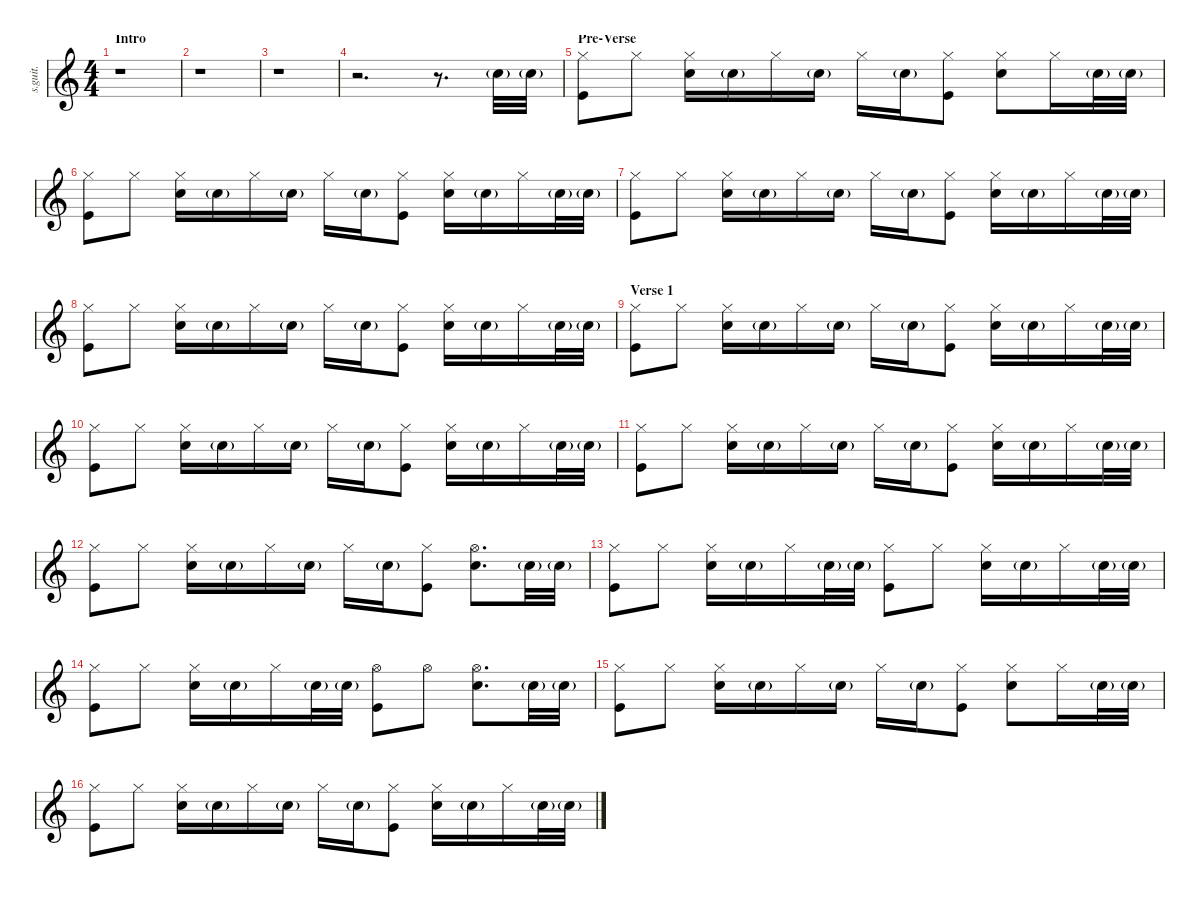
\defaultSystemsLayout 4
\hideDynamics
\bracketExtendMode nobrackets
\track ("C. Smith" "s.guit.") {instrument percussion}
\staff {score}
\articulation defaults
\ts (4 4)
\beaming (8 2 2 2 2)
\section ("" "Intro")
\tempo (96 hide)
\clef g2
\ks c
r.1{dy ppp} |
r.1 |
r.1 |
r.2{d} r.8{d} "Snare (hit) 2"{g}.32{lyrics (0 "") lyrics (1 "") lyrics (2 "") lyrics (3 "") lyrics (4 "")} "Snare (hit) 2"{g}.32{lyrics (0 "") lyrics (1 "") lyrics (2 "") lyrics (3 "") lyrics (4 "")} |
\section ("" "Pre-Verse")
("Hi-Hat (closed)" "Kick (hit)").8{lyrics (0 "") lyrics (1 "") lyrics (2 "") lyrics (3 "") lyrics (4 "") dy f} "Hi-Hat (closed)".8{lyrics (0 "") lyrics (1 "") lyrics (2 "") lyrics (3 "") lyrics (4 "") dy mp} ("Hi-Hat (closed)" "Snare (hit) 2").16{lyrics (0 "") lyrics (1 "") lyrics (2 "") lyrics (3 "") lyrics (4 "")} "Snare (hit) 2"{g}.16{lyrics (0 "") lyrics (1 "") lyrics (2 "") lyrics (3 "") lyrics (4 "") dy ppp} "Hi-Hat (closed)".16{lyrics (0 "") lyrics (1 "") lyrics (2 "") lyrics (3 "") lyrics (4 "") dy mp} "Snare (hit) 2"{g}.16{lyrics (0 "") lyrics (1 "") lyrics (2 "") lyrics (3 "") lyrics (4 "") dy ppp} "Hi-Hat (closed)".16{lyrics (0 "") lyrics (1 "") lyrics (2 "") lyrics (3 "") lyrics (4 "") dy fff} "Snare (hit) 2"{g}.16{lyrics (0 "") lyrics (1 "") lyrics (2 "") lyrics (3 "") lyrics (4 "") dy ppp} ("Hi-Hat (closed)" "Kick (hit)").8{lyrics (0 "") lyrics (1 "") lyrics (2 "") lyrics (3 "") lyrics (4 "") dy f} ("Hi-Hat (closed)" "Snare (hit) 2").8{lyrics (0 "") lyrics (1 "") lyrics (2 "") lyrics (3 "") lyrics (4 "")} "Hi-Hat (closed)".16{lyrics (0 "") lyrics (1 "") lyrics (2 "") lyrics (3 "") lyrics (4 "") dy mp} "Snare (hit) 2"{g}.32{lyrics (0 "") lyrics (1 "") lyrics (2 "") lyrics (3 "") lyrics (4 "") dy ppp} "Snare (hit) 2"{g}.32{lyrics (0 "") lyrics (1 "") lyrics (2 "") lyrics (3 "") lyrics (4 "")} |
("Hi-Hat (closed)" "Kick (hit)").8{lyrics (0 "") lyrics (1 "") lyrics (2 "") lyrics (3 "") lyrics (4 "") dy f} "Hi-Hat (closed)".8{lyrics (0 "") lyrics (1 "") lyrics (2 "") lyrics (3 "") lyrics (4 "") dy mp} ("Hi-Hat (closed)" "Snare (hit) 2").16{lyrics (0 "") lyrics (1 "") lyrics (2 "") lyrics (3 "") lyrics (4 "")} "Snare (hit) 2"{g}.16{lyrics (0 "") lyrics (1 "") lyrics (2 "") lyrics (3 "") lyrics (4 "") dy ppp} "Hi-Hat (closed)".16{lyrics (0 "") lyrics (1 "") lyrics (2 "") lyrics (3 "") lyrics (4 "") dy mp} "Snare (hit) 2"{g}.16{lyrics (0 "") lyrics (1 "") lyrics (2 "") lyrics (3 "") lyrics (4 "") dy ppp} "Hi-Hat (closed)".16{lyrics (0 "") lyrics (1 "") lyrics (2 "") lyrics (3 "") lyrics (4 "") dy fff} "Snare (hit) 2"{g}.16{lyrics (0 "") lyrics (1 "") lyrics (2 "") lyrics (3 "") lyrics (4 "") dy ppp} ("Hi-Hat (closed)" "Kick (hit)").8{lyrics (0 "") lyrics (1 "") lyrics (2 "") lyrics (3 "") lyrics (4 "") dy f} ("Hi-Hat (closed)" "Snare (hit) 2").16{lyrics (0 "") lyrics (1 "") lyrics (2 "") lyrics (3 "") lyrics (4 "")} "Snare (hit) 2"{g}.16{lyrics (0 "") lyrics (1 "") lyrics (2 "") lyrics (3 "") lyrics (4 "") dy ppp} "Hi-Hat (closed)".16{lyrics (0 "") lyrics (1 "") lyrics (2 "") lyrics (3 "") lyrics (4 "") dy mp} "Snare (hit) 2"{g}.32{lyrics (0 "") lyrics (1 "") lyrics (2 "") lyrics (3 "") lyrics (4 "") dy ppp} "Snare (hit) 2"{g}.32{lyrics (0 "") lyrics (1 "") lyrics (2 "") lyrics (3 "") lyrics (4 "")} |
("Hi-Hat (closed)" "Kick (hit)").8{lyrics (0 "") lyrics (1 "") lyrics (2 "") lyrics (3 "") lyrics (4 "") dy f} "Hi-Hat (closed)".8{lyrics (0 "") lyrics (1 "") lyrics (2 "") lyrics (3 "") lyrics (4 "") dy mp} ("Hi-Hat (closed)" "Snare (hit) 2").16{lyrics (0 "") lyrics (1 "") lyrics (2 "") lyrics (3 "") lyrics (4 "") dy f} "Snare (hit) 2"{g}.16{lyrics (0 "") lyrics (1 "") lyrics (2 "") lyrics (3 "") lyrics (4 "") dy ppp} "Hi-Hat (closed)".16{lyrics (0 "") lyrics (1 "") lyrics (2 "") lyrics (3 "") lyrics (4 "") dy mp} "Snare (hit) 2"{g}.16{lyrics (0 "") lyrics (1 "") lyrics (2 "") lyrics (3 "") lyrics (4 "") dy ppp} "Hi-Hat (closed)".16{lyrics (0 "") lyrics (1 "") lyrics (2 "") lyrics (3 "") lyrics (4 "") dy fff} "Snare (hit) 2"{g}.16{lyrics (0 "") lyrics (1 "") lyrics (2 "") lyrics (3 "") lyrics (4 "") dy ppp} ("Hi-Hat (closed)" "Kick (hit)").8{lyrics (0 "") lyrics (1 "") lyrics (2 "") lyrics (3 "") lyrics (4 "") dy f} ("Hi-Hat (closed)" "Snare (hit) 2").16{lyrics (0 "") lyrics (1 "") lyrics (2 "") lyrics (3 "") lyrics (4 "")} "Snare (hit) 2"{g}.16{lyrics (0 "") lyrics (1 "") lyrics (2 "") lyrics (3 "") lyrics (4 "") dy ppp} "Hi-Hat (closed)".16{lyrics (0 "") lyrics (1 "") lyrics (2 "") lyrics (3 "") lyrics (4 "") dy mp} "Snare (hit) 2"{g}.32{lyrics (0 "") lyrics (1 "") lyrics (2 "") lyrics (3 "") lyrics (4 "") dy ppp} "Snare (hit) 2"{g}.32{lyrics (0 "") lyrics (1 "") lyrics (2 "") lyrics (3 "") lyrics (4 "")} |
("Hi-Hat (closed)" "Kick (hit)").8{lyrics (0 "") lyrics (1 "") lyrics (2 "") lyrics (3 "") lyrics (4 "") dy f} "Hi-Hat (closed)".8{lyrics (0 "") lyrics (1 "") lyrics (2 "") lyrics (3 "") lyrics (4 "") dy mp} ("Hi-Hat (closed)" "Snare (hit) 2").16{lyrics (0 "") lyrics (1 "") lyrics (2 "") lyrics (3 "") lyrics (4 "") dy f} "Snare (hit) 2"{g}.16{lyrics (0 "") lyrics (1 "") lyrics (2 "") lyrics (3 "") lyrics (4 "") dy ppp} "Hi-Hat (closed)".16{lyrics (0 "") lyrics (1 "") lyrics (2 "") lyrics (3 "") lyrics (4 "") dy fff} "Snare (hit) 2"{g}.16{lyrics (0 "") lyrics (1 "") lyrics (2 "") lyrics (3 "") lyrics (4 "") dy ppp} "Hi-Hat (closed)".16{lyrics (0 "") lyrics (1 "") lyrics (2 "") lyrics (3 "") lyrics (4 "") dy fff} "Snare (hit) 2"{g}.16{lyrics (0 "") lyrics (1 "") lyrics (2 "") lyrics (3 "") lyrics (4 "") dy ppp} ("Hi-Hat (closed)" "Kick (hit)").8{lyrics (0 "") lyrics (1 "") lyrics (2 "") lyrics (3 "") lyrics (4 "") dy f} ("Hi-Hat (closed)" "Snare (hit) 2").16{lyrics (0 "") lyrics (1 "") lyrics (2 "") lyrics (3 "") lyrics (4 "")} "Snare (hit) 2"{g}.16{lyrics (0 "") lyrics (1 "") lyrics (2 "") lyrics (3 "") lyrics (4 "") dy ppp} "Hi-Hat (closed)".16{lyrics (0 "") lyrics (1 "") lyrics (2 "") lyrics (3 "") lyrics (4 "") dy mp} "Snare (hit) 2"{g}.32{lyrics (0 "") lyrics (1 "") lyrics (2 "") lyrics (3 "") lyrics (4 "") dy ppp} "Snare (hit) 2"{g}.32{lyrics (0 "") lyrics (1 "") lyrics (2 "") lyrics (3 "") lyrics (4 "")} |
\section ("" "Verse 1")
("Hi-Hat (closed)" "Kick (hit)").8{lyrics (0 "") lyrics (1 "") lyrics (2 "") lyrics (3 "") lyrics (4 "") dy f} "Hi-Hat (closed)".8{lyrics (0 "") lyrics (1 "") lyrics (2 "") lyrics (3 "") lyrics (4 "") dy mp} ("Hi-Hat (closed)" "Snare (hit) 2").16{lyrics (0 "") lyrics (1 "") lyrics (2 "") lyrics (3 "") lyrics (4 "") dy f} "Snare (hit) 2"{g}.16{lyrics (0 "") lyrics (1 "") lyrics (2 "") lyrics (3 "") lyrics (4 "") dy ppp} "Hi-Hat (closed)".16{lyrics (0 "") lyrics (1 "") lyrics (2 "") lyrics (3 "") lyrics (4 "") dy mp} "Snare (hit) 2"{g}.16{lyrics (0 "") lyrics (1 "") lyrics (2 "") lyrics (3 "") lyrics (4 "") dy ppp} "Hi-Hat (closed)".16{lyrics (0 "") lyrics (1 "") lyrics (2 "") lyrics (3 "") lyrics (4 "") dy fff} "Snare (hit) 2"{g}.16{lyrics (0 "") lyrics (1 "") lyrics (2 "") lyrics (3 "") lyrics (4 "") dy ppp} ("Hi-Hat (closed)" "Kick (hit)").8{lyrics (0 "") lyrics (1 "") lyrics (2 "") lyrics (3 "") lyrics (4 "") dy f} ("Hi-Hat (closed)" "Snare (hit) 2").16{lyrics (0 "") lyrics (1 "") lyrics (2 "") lyrics (3 "") lyrics (4 "")} "Snare (hit) 2"{g}.16{lyrics (0 "") lyrics (1 "") lyrics (2 "") lyrics (3 "") lyrics (4 "") dy ppp} "Hi-Hat (closed)".16{lyrics (0 "") lyrics (1 "") lyrics (2 "") lyrics (3 "") lyrics (4 "") dy mp} "Snare (hit) 2"{g}.32{lyrics (0 "") lyrics (1 "") lyrics (2 "") lyrics (3 "") lyrics (4 "") dy ppp} "Snare (hit) 2"{g}.32{lyrics (0 "") lyrics (1 "") lyrics (2 "") lyrics (3 "") lyrics (4 "")} |
("Hi-Hat (closed)" "Kick (hit)").8{lyrics (0 "") lyrics (1 "") lyrics (2 "") lyrics (3 "") lyrics (4 "") dy f} "Hi-Hat (closed)".8{lyrics (0 "") lyrics (1 "") lyrics (2 "") lyrics (3 "") lyrics (4 "") dy mp} ("Hi-Hat (closed)" "Snare (hit) 2").16{lyrics (0 "") lyrics (1 "") lyrics (2 "") lyrics (3 "") lyrics (4 "") dy f} "Snare (hit) 2"{g}.16{lyrics (0 "") lyrics (1 "") lyrics (2 "") lyrics (3 "") lyrics (4 "") dy ppp} "Hi-Hat (closed)".16{lyrics (0 "") lyrics (1 "") lyrics (2 "") lyrics (3 "") lyrics (4 "") dy mp} "Snare (hit) 2"{g}.16{lyrics (0 "") lyrics (1 "") lyrics (2 "") lyrics (3 "") lyrics (4 "") dy ppp} "Hi-Hat (closed)".16{lyrics (0 "") lyrics (1 "") lyrics (2 "") lyrics (3 "") lyrics (4 "") dy fff} "Snare (hit) 2"{g}.16{lyrics (0 "") lyrics (1 "") lyrics (2 "") lyrics (3 "") lyrics (4 "") dy ppp} ("Hi-Hat (closed)" "Kick (hit)").8{lyrics (0 "") lyrics (1 "") lyrics (2 "") lyrics (3 "") lyrics (4 "") dy f} ("Hi-Hat (closed)" "Snare (hit) 2").16{lyrics (0 "") lyrics (1 "") lyrics (2 "") lyrics (3 "") lyrics (4 "")} "Snare (hit) 2"{g}.16{lyrics (0 "") lyrics (1 "") lyrics (2 "") lyrics (3 "") lyrics (4 "") dy ppp} "Hi-Hat (closed)".16{lyrics (0 "") lyrics (1 "") lyrics (2 "") lyrics (3 "") lyrics (4 "") dy mp} "Snare (hit) 2"{g}.32{lyrics (0 "") lyrics (1 "") lyrics (2 "") lyrics (3 "") lyrics (4 "") dy ppp} "Snare (hit) 2"{g}.32{lyrics (0 "") lyrics (1 "") lyrics (2 "") lyrics (3 "") lyrics (4 "")} |
("Hi-Hat (closed)" "Kick (hit)").8{lyrics (0 "") lyrics (1 "") lyrics (2 "") lyrics (3 "") lyrics (4 "") dy f} "Hi-Hat (closed)".8{lyrics (0 "") lyrics (1 "") lyrics (2 "") lyrics (3 "") lyrics (4 "") dy mp} ("Hi-Hat (closed)" "Snare (hit) 2").16{lyrics (0 "") lyrics (1 "") lyrics (2 "") lyrics (3 "") lyrics (4 "") dy f} "Snare (hit) 2"{g}.16{lyrics (0 "") lyrics (1 "") lyrics (2 "") lyrics (3 "") lyrics (4 "") dy ppp} "Hi-Hat (closed)".16{lyrics (0 "") lyrics (1 "") lyrics (2 "") lyrics (3 "") lyrics (4 "") dy mp} "Snare (hit) 2"{g}.16{lyrics (0 "") lyrics (1 "") lyrics (2 "") lyrics (3 "") lyrics (4 "") dy ppp} "Hi-Hat (closed)".16{lyrics (0 "") lyrics (1 "") lyrics (2 "") lyrics (3 "") lyrics (4 "") dy fff} "Snare (hit) 2"{g}.16{lyrics (0 "") lyrics (1 "") lyrics (2 "") lyrics (3 "") lyrics (4 "") dy ppp} ("Hi-Hat (closed)" "Kick (hit)").8{lyrics (0 "") lyrics (1 "") lyrics (2 "") lyrics (3 "") lyrics (4 "") dy f} ("Hi-Hat (closed)" "Snare (hit) 2").16{lyrics (0 "") lyrics (1 "") lyrics (2 "") lyrics (3 "") lyrics (4 "")} "Snare (hit) 2"{g}.16{lyrics (0 "") lyrics (1 "") lyrics (2 "") lyrics (3 "") lyrics (4 "") dy ppp} "Hi-Hat (closed)".16{lyrics (0 "") lyrics (1 "") lyrics (2 "") lyrics (3 "") lyrics (4 "") dy mp} "Snare (hit) 2"{g}.32{lyrics (0 "") lyrics (1 "") lyrics (2 "") lyrics (3 "") lyrics (4 "") dy ppp} "Snare (hit) 2"{g}.32{lyrics (0 "") lyrics (1 "") lyrics (2 "") lyrics (3 "") lyrics (4 "")} |
("Hi-Hat (closed)" "Kick (hit)").8{lyrics (0 "") lyrics (1 "") lyrics (2 "") lyrics (3 "") lyrics (4 "") dy f} "Hi-Hat (closed)".8{lyrics (0 "") lyrics (1 "") lyrics (2 "") lyrics (3 "") lyrics (4 "") dy mp} ("Hi-Hat (closed)" "Snare (hit) 2").16{lyrics (0 "") lyrics (1 "") lyrics (2 "") lyrics (3 "") lyrics (4 "") dy f} "Snare (hit) 2"{g}.16{lyrics (0 "") lyrics (1 "") lyrics (2 "") lyrics (3 "") lyrics (4 "") dy ppp} "Hi-Hat (closed)".16{lyrics (0 "") lyrics (1 "") lyrics (2 "") lyrics (3 "") lyrics (4 "") dy mp} "Snare (hit) 2"{g}.16{lyrics (0 "") lyrics (1 "") lyrics (2 "") lyrics (3 "") lyrics (4 "") dy ppp} "Hi-Hat (closed)".16{lyrics (0 "") lyrics (1 "") lyrics (2 "") lyrics (3 "") lyrics (4 "") dy fff} "Snare (hit) 2"{g}.16{lyrics (0 "") lyrics (1 "") lyrics (2 "") lyrics (3 "") lyrics (4 "") dy ppp} ("Hi-Hat (closed)" "Kick (hit)").8{lyrics (0 "") lyrics (1 "") lyrics (2 "") lyrics (3 "") lyrics (4 "") dy f} ("Hi-Hat (open)" "Snare (hit) 2").8{d lyrics (0 "") lyrics (1 "") lyrics (2 "") lyrics (3 "") lyrics (4 "")} "Snare (hit) 2"{g}.32{lyrics (0 "") lyrics (1 "") lyrics (2 "") lyrics (3 "") lyrics (4 "") dy ppp} "Snare (hit) 2"{g}.32{lyrics (0 "") lyrics (1 "") lyrics (2 "") lyrics (3 "") lyrics (4 "")} |
("Hi-Hat (closed)" "Kick (hit)").8{lyrics (0 "") lyrics (1 "") lyrics (2 "") lyrics (3 "") lyrics (4 "") dy f} "Hi-Hat (closed)".8{lyrics (0 "") lyrics (1 "") lyrics (2 "") lyrics (3 "") lyrics (4 "") dy mp} ("Hi-Hat (closed)" "Snare (hit) 2").16{lyrics (0 "") lyrics (1 "") lyrics (2 "") lyrics (3 "") lyrics (4 "") dy f} "Snare (hit) 2"{g}.16{lyrics (0 "") lyrics (1 "") lyrics (2 "") lyrics (3 "") lyrics (4 "") dy ppp} "Hi-Hat (closed)".16{lyrics (0 "") lyrics (1 "") lyrics (2 "") lyrics (3 "") lyrics (4 "") dy mp} "Snare (hit) 2"{g}.32{lyrics (0 "") lyrics (1 "") lyrics (2 "") lyrics (3 "") lyrics (4 "") dy ppp} "Snare (hit) 2"{g}.32{lyrics (0 "") lyrics (1 "") lyrics (2 "") lyrics (3 "") lyrics (4 "")} ("Hi-Hat (closed)" "Kick (hit)").8{lyrics (0 "") lyrics (1 "") lyrics (2 "") lyrics (3 "") lyrics (4 "") dy f} "Hi-Hat (closed)".8{lyrics (0 "") lyrics (1 "") lyrics (2 "") lyrics (3 "") lyrics (4 "") dy mp} ("Hi-Hat (closed)" "Snare (hit) 2").16{lyrics (0 "") lyrics (1 "") lyrics (2 "") lyrics (3 "") lyrics (4 "") dy f} "Snare (hit) 2"{g}.16{lyrics (0 "") lyrics (1 "") lyrics (2 "") lyrics (3 "") lyrics (4 "") dy ppp} "Hi-Hat (closed)".16{lyrics (0 "") lyrics (1 "") lyrics (2 "") lyrics (3 "") lyrics (4 "") dy mp} "Snare (hit) 2"{g}.32{lyrics (0 "") lyrics (1 "") lyrics (2 "") lyrics (3 "") lyrics (4 "") dy ppp} "Snare (hit) 2"{g}.32{lyrics (0 "") lyrics (1 "") lyrics (2 "") lyrics (3 "") lyrics (4 "")} |
("Hi-Hat (closed)" "Kick (hit)").8{lyrics (0 "") lyrics (1 "") lyrics (2 "") lyrics (3 "") lyrics (4 "") dy f} "Hi-Hat (closed)".8{lyrics (0 "") lyrics (1 "") lyrics (2 "") lyrics (3 "") lyrics (4 "") dy mp} ("Hi-Hat (closed)" "Snare (hit) 2").16{lyrics (0 "") lyrics (1 "") lyrics (2 "") lyrics (3 "") lyrics (4 "") dy f} "Snare (hit) 2"{g}.16{lyrics (0 "") lyrics (1 "") lyrics (2 "") lyrics (3 "") lyrics (4 "") dy ppp} "Hi-Hat (closed)".16{lyrics (0 "") lyrics (1 "") lyrics (2 "") lyrics (3 "") lyrics (4 "") dy mp} "Snare (hit) 2"{g}.32{lyrics (0 "") lyrics (1 "") lyrics (2 "") lyrics (3 "") lyrics (4 "") dy ppp} "Snare (hit) 2"{g}.32{lyrics (0 "") lyrics (1 "") lyrics (2 "") lyrics (3 "") lyrics (4 "")} ("Hi-Hat (open)" "Kick (hit)").8{lyrics (0 "") lyrics (1 "") lyrics (2 "") lyrics (3 "") lyrics (4 "") dy f} "Hi-Hat (open)".8{lyrics (0 "") lyrics (1 "") lyrics (2 "") lyrics (3 "") lyrics (4 "") dy mp} ("Hi-Hat (open)" "Snare (hit) 2").8{d lyrics (0 "") lyrics (1 "") lyrics (2 "") lyrics (3 "") lyrics (4 "") dy f} "Snare (hit) 2"{g}.32{lyrics (0 "") lyrics (1 "") lyrics (2 "") lyrics (3 "") lyrics (4 "") dy ppp} "Snare (hit) 2"{g}.32{lyrics (0 "") lyrics (1 "") lyrics (2 "") lyrics (3 "") lyrics (4 "")} |
("Hi-Hat (closed)" "Kick (hit)").8{lyrics (0 "") lyrics (1 "") lyrics (2 "") lyrics (3 "") lyrics (4 "") dy f} "Hi-Hat (closed)".8{lyrics (0 "") lyrics (1 "") lyrics (2 "") lyrics (3 "") lyrics (4 "") dy mp} ("Hi-Hat (closed)" "Snare (hit) 2").16{lyrics (0 "") lyrics (1 "") lyrics (2 "") lyrics (3 "") lyrics (4 "") dy f} "Snare (hit) 2"{g}.16{lyrics (0 "") lyrics (1 "") lyrics (2 "") lyrics (3 "") lyrics (4 "") dy ppp} "Hi-Hat (closed)".16{lyrics (0 "") lyrics (1 "") lyrics (2 "") lyrics (3 "") lyrics (4 "") dy mp} "Snare (hit) 2"{g}.16{lyrics (0 "") lyrics (1 "") lyrics (2 "") lyrics (3 "") lyrics (4 "") dy ppp} "Hi-Hat (closed)".16{lyrics (0 "") lyrics (1 "") lyrics (2 "") lyrics (3 "") lyrics (4 "") dy fff} "Snare (hit) 2"{g}.16{lyrics (0 "") lyrics (1 "") lyrics (2 "") lyrics (3 "") lyrics (4 "") dy ppp} ("Hi-Hat (closed)" "Kick (hit)").8{lyrics (0 "") lyrics (1 "") lyrics (2 "") lyrics (3 "") lyrics (4 "") dy f} ("Hi-Hat (closed)" "Snare (hit) 2").8{lyrics (0 "") lyrics (1 "") lyrics (2 "") lyrics (3 "") lyrics (4 "")} "Hi-Hat (closed)".16{lyrics (0 "") lyrics (1 "") lyrics (2 "") lyrics (3 "") lyrics (4 "") dy mp} "Snare (hit) 2"{g}.32{lyrics (0 "") lyrics (1 "") lyrics (2 "") lyrics (3 "") lyrics (4 "") dy ppp} "Snare (hit) 2"{g}.32{lyrics (0 "") lyrics (1 "") lyrics (2 "") lyrics (3 "") lyrics (4 "")} |
("Hi-Hat (closed)" "Kick (hit)").8{lyrics (0 "") lyrics (1 "") lyrics (2 "") lyrics (3 "") lyrics (4 "") dy f} "Hi-Hat (closed)".8{lyrics (0 "") lyrics (1 "") lyrics (2 "") lyrics (3 "") lyrics (4 "") dy mp} ("Hi-Hat (closed)" "Snare (hit) 2").16{lyrics (0 "") lyrics (1 "") lyrics (2 "") lyrics (3 "") lyrics (4 "") dy f} "Snare (hit) 2"{g}.16{lyrics (0 "") lyrics (1 "") lyrics (2 "") lyrics (3 "") lyrics (4 "") dy ppp} "Hi-Hat (closed)".16{lyrics (0 "") lyrics (1 "") lyrics (2 "") lyrics (3 "") lyrics (4 "") dy mp} "Snare (hit) 2"{g}.16{lyrics (0 "") lyrics (1 "") lyrics (2 "") lyrics (3 "") lyrics (4 "") dy ppp} "Hi-Hat (closed)".16{lyrics (0 "") lyrics (1 "") lyrics (2 "") lyrics (3 "") lyrics (4 "") dy fff} "Snare (hit) 2"{g}.16{lyrics (0 "") lyrics (1 "") lyrics (2 "") lyrics (3 "") lyrics (4 "") dy ppp} ("Hi-Hat (closed)" "Kick (hit)").8{lyrics (0 "") lyrics (1 "") lyrics (2 "") lyrics (3 "") lyrics (4 "") dy f} ("Hi-Hat (closed)" "Snare (hit) 2").16{lyrics (0 "") lyrics (1 "") lyrics (2 "") lyrics (3 "") lyrics (4 "")} "Snare (hit) 2"{g}.16{lyrics (0 "") lyrics (1 "") lyrics (2 "") lyrics (3 "") lyrics (4 "") dy ppp} "Hi-Hat (closed)".16{lyrics (0 "") lyrics (1 "") lyrics (2 "") lyrics (3 "") lyrics (4 "") dy mp} "Snare (hit) 2"{g}.32{lyrics (0 "") lyrics (1 "") lyrics (2 "") lyrics (3 "") lyrics (4 "") dy ppp} "Snare (hit) 2"{g}.32{lyrics (0 "") lyrics (1 "") lyrics (2 "") lyrics (3 "") lyrics (4 "")}
